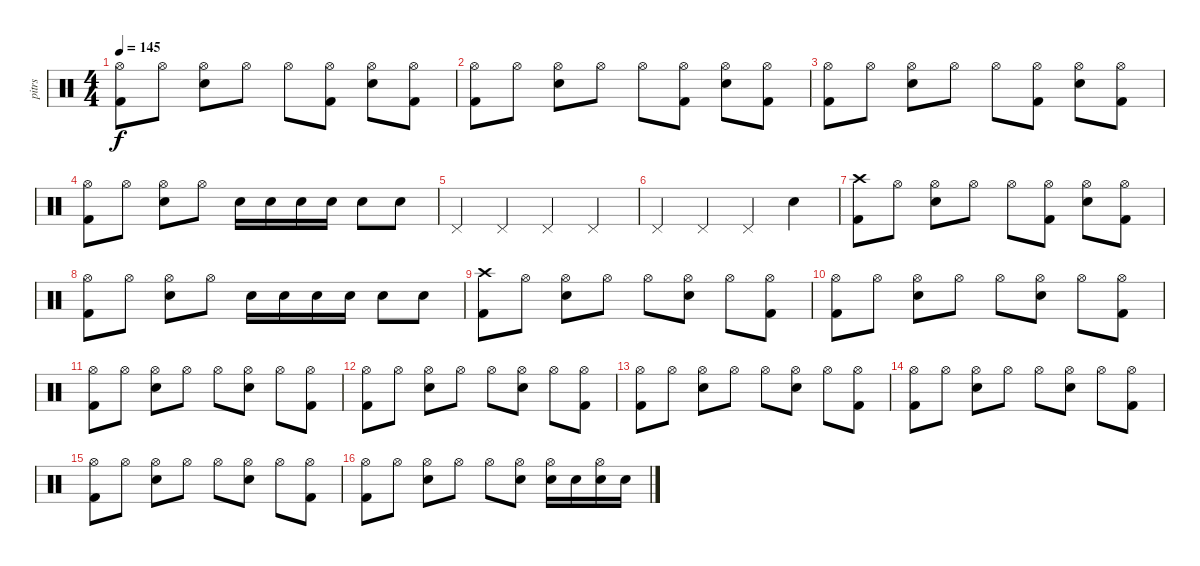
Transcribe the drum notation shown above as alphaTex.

\track ("pitrs" "pitrs") {instrument percussion}
\staff {score}
\articulation defaults
\ts (4 4)
\tempo 145
\clef neutral
\ks c
("Hi-Hat (open)" "Kick (hit) 2").8{dy f} "Hi-Hat (open)".8 ("Hi-Hat (open)" "Snare (hit) 2").8 "Hi-Hat (open)".8 "Hi-Hat (open)".8 ("Hi-Hat (open)" "Kick (hit) 2").8 ("Hi-Hat (open)" "Snare (hit) 2").8 ("Hi-Hat (open)" "Kick (hit) 2").8 |
("Hi-Hat (open)" "Kick (hit) 2").8 "Hi-Hat (open)".8 ("Hi-Hat (open)" "Snare (hit) 2").8 "Hi-Hat (open)".8 "Hi-Hat (open)".8 ("Hi-Hat (open)" "Kick (hit) 2").8 ("Hi-Hat (open)" "Snare (hit) 2").8 ("Hi-Hat (open)" "Kick (hit) 2").8 |
("Hi-Hat (open)" "Kick (hit) 2").8 "Hi-Hat (open)".8 ("Hi-Hat (open)" "Snare (hit) 2").8 "Hi-Hat (open)".8 "Hi-Hat (open)".8 ("Hi-Hat (open)" "Kick (hit) 2").8 ("Hi-Hat (open)" "Snare (hit) 2").8 ("Hi-Hat (open)" "Kick (hit) 2").8 |
("Hi-Hat (open)" "Kick (hit) 2").8 "Hi-Hat (open)".8 ("Hi-Hat (open)" "Snare (hit) 2").8 "Hi-Hat (open)".8 "Snare (hit) 2".16 "Snare (hit) 2".16 "Snare (hit) 2".16 "Snare (hit) 2".16 "Snare (hit) 2".8 "Snare (hit) 2".8 |
"Pedal Hi-Hat (hit)".4 "Pedal Hi-Hat (hit)".4 "Pedal Hi-Hat (hit)".4 "Pedal Hi-Hat (hit)".4 |
"Pedal Hi-Hat (hit)".4 "Pedal Hi-Hat (hit)".4 "Pedal Hi-Hat (hit)".4 "Snare (hit) 2".4 |
("Crash high (hit)" "Kick (hit) 2").8 "Hi-Hat (open)".8 ("Hi-Hat (open)" "Snare (hit) 2").8 "Hi-Hat (open)".8 "Hi-Hat (open)".8 ("Hi-Hat (open)" "Kick (hit) 2").8 ("Hi-Hat (open)" "Snare (hit) 2").8 ("Hi-Hat (open)" "Kick (hit) 2").8 |
("Hi-Hat (open)" "Kick (hit) 2").8 "Hi-Hat (open)".8 ("Hi-Hat (open)" "Snare (hit) 2").8 "Hi-Hat (open)".8 "Snare (hit) 2".16 "Snare (hit) 2".16 "Snare (hit) 2".16 "Snare (hit) 2".16 "Snare (hit) 2".8 "Snare (hit) 2".8 |
("Crash high (hit)" "Kick (hit) 2").8 "Hi-Hat (open)".8 ("Hi-Hat (open)" "Snare (hit) 2").8 "Hi-Hat (open)".8 "Hi-Hat (open)".8 ("Hi-Hat (open)" "Snare (hit) 2").8 "Hi-Hat (open)".8 ("Hi-Hat (open)" "Kick (hit) 2").8 |
("Hi-Hat (open)" "Kick (hit) 2").8 "Hi-Hat (open)".8 ("Hi-Hat (open)" "Snare (hit) 2").8 "Hi-Hat (open)".8 "Hi-Hat (open)".8 ("Hi-Hat (open)" "Snare (hit) 2").8 "Hi-Hat (open)".8 ("Hi-Hat (open)" "Kick (hit) 2").8 |
("Hi-Hat (open)" "Kick (hit) 2").8 "Hi-Hat (open)".8 ("Hi-Hat (open)" "Snare (hit) 2").8 "Hi-Hat (open)".8 "Hi-Hat (open)".8 ("Hi-Hat (open)" "Snare (hit) 2").8 "Hi-Hat (open)".8 ("Hi-Hat (open)" "Kick (hit) 2").8 |
("Hi-Hat (open)" "Kick (hit) 2").8 "Hi-Hat (open)".8 ("Hi-Hat (open)" "Snare (hit) 2").8 "Hi-Hat (open)".8 "Hi-Hat (open)".8 ("Hi-Hat (open)" "Snare (hit) 2").8 "Hi-Hat (open)".8 ("Hi-Hat (open)" "Kick (hit) 2").8 |
("Hi-Hat (open)" "Kick (hit) 2").8 "Hi-Hat (open)".8 ("Hi-Hat (open)" "Snare (hit) 2").8 "Hi-Hat (open)".8 "Hi-Hat (open)".8 ("Hi-Hat (open)" "Snare (hit) 2").8 "Hi-Hat (open)".8 ("Hi-Hat (open)" "Kick (hit) 2").8 |
("Hi-Hat (open)" "Kick (hit) 2").8 "Hi-Hat (open)".8 ("Hi-Hat (open)" "Snare (hit) 2").8 "Hi-Hat (open)".8 "Hi-Hat (open)".8 ("Hi-Hat (open)" "Snare (hit) 2").8 "Hi-Hat (open)".8 ("Hi-Hat (open)" "Kick (hit) 2").8 |
("Hi-Hat (open)" "Kick (hit) 2").8 "Hi-Hat (open)".8 ("Hi-Hat (open)" "Snare (hit) 2").8 "Hi-Hat (open)".8 "Hi-Hat (open)".8 ("Hi-Hat (open)" "Snare (hit) 2").8 "Hi-Hat (open)".8 ("Hi-Hat (open)" "Kick (hit) 2").8 |
("Hi-Hat (open)" "Kick (hit) 2").8 "Hi-Hat (open)".8 ("Hi-Hat (open)" "Snare (hit) 2").8 "Hi-Hat (open)".8 "Hi-Hat (open)".8 ("Hi-Hat (open)" "Snare (hit) 2").8 ("Hi-Hat (open)" "Snare (hit) 2").16 "Snare (hit) 2".16 ("Hi-Hat (open)" "Snare (hit) 2").16 "Snare (hit) 2".16
